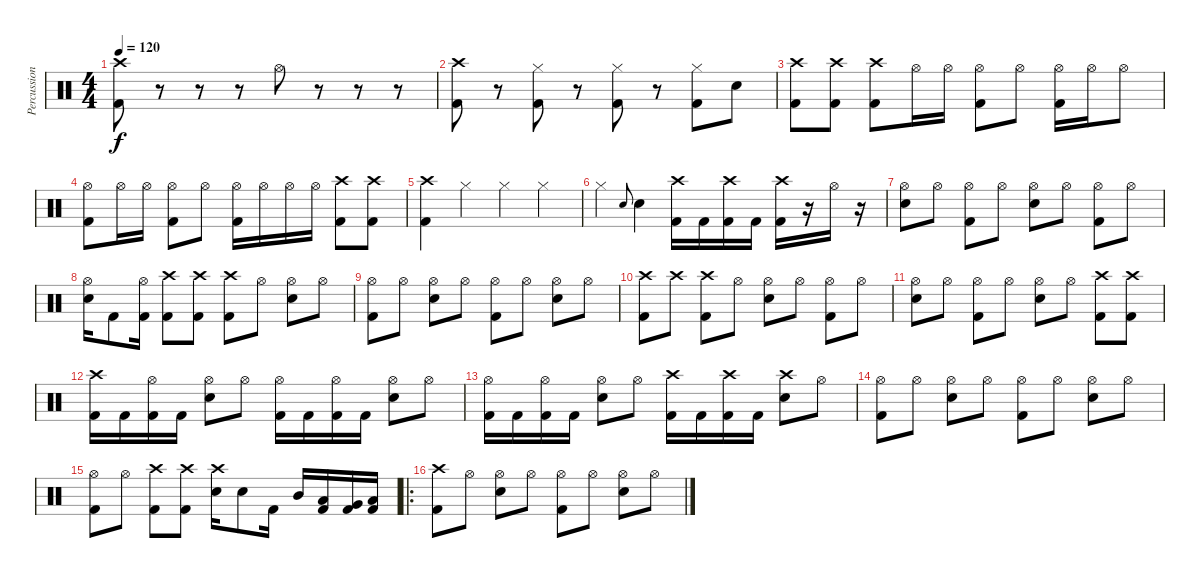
\track ("Percussion" "Percussion") {instrument percussion}
\staff {score}
\articulation defaults
\ts (4 4)
\tempo 120
\clef neutral
\ks c
("Crash high (hit)" "Kick (hit) 2").8{dy f} r.8 r.8 r.8 "Hi-Hat (open)".8 r.8 r.8 r.8 |
("Crash high (hit)" "Kick (hit) 2").8 r.8 ("Hi-Hat (closed)" "Kick (hit) 2").8 r.8 ("Hi-Hat (closed)" "Kick (hit) 2").8 r.8 ("Hi-Hat (closed)" "Kick (hit) 2").8 "Snare (hit) 2".8 |
("Crash high (hit)" "Kick (hit) 2").8 ("Crash high (hit)" "Kick (hit) 2").8 ("Crash high (hit)" "Kick (hit) 2").8 "Hi-Hat (open)".16 "Hi-Hat (open)".16 ("Hi-Hat (open)" "Kick (hit) 2").8 "Hi-Hat (open)".8 ("Hi-Hat (open)" "Kick (hit) 2").16 "Hi-Hat (open)".16 "Hi-Hat (open)".8 |
("Hi-Hat (open)" "Kick (hit) 2").8 "Hi-Hat (open)".16 "Hi-Hat (open)".16 ("Hi-Hat (open)" "Kick (hit) 2").8 "Hi-Hat (open)".8 ("Hi-Hat (open)" "Kick (hit) 2").16 "Hi-Hat (open)".16 "Hi-Hat (open)".16 "Hi-Hat (open)".16 ("Crash high (hit)" "Kick (hit) 2").8 ("Crash high (hit)" "Kick (hit) 2").8 |
("Crash high (hit)" "Kick (hit) 2").4 "Hi-Hat (closed)".4 "Hi-Hat (closed)".4 "Hi-Hat (closed)".4 |
"Hi-Hat (closed)".4 "Snare (hit) 2".8{gr onbeat} "Snare (hit) 2".4 ("Crash high (hit)" "Kick (hit) 2").16 "Kick (hit) 2".16 ("Crash high (hit)" "Kick (hit) 2").16 "Kick (hit) 2".16 ("Crash high (hit)" "Kick (hit) 2").16 r.16 "Hi-Hat (open)".16 r.16 |
("Hi-Hat (open)" "Snare (hit) 2").8 "Hi-Hat (open)".8 ("Hi-Hat (open)" "Kick (hit) 2").8 "Hi-Hat (open)".8 ("Hi-Hat (open)" "Snare (hit) 2").8 "Hi-Hat (open)".8 ("Hi-Hat (open)" "Kick (hit) 2").8 "Hi-Hat (open)".8 |
("Hi-Hat (open)" "Snare (hit) 2").16 "Kick (hit) 2".8 ("Hi-Hat (open)" "Kick (hit) 2").16 ("Crash high (hit)" "Kick (hit) 2").8 ("Crash high (hit)" "Kick (hit) 2").8 ("Crash high (hit)" "Kick (hit) 2").8 "Hi-Hat (open)".8 ("Hi-Hat (open)" "Snare (hit) 2").8 "Hi-Hat (open)".8 |
("Hi-Hat (open)" "Kick (hit) 2").8 "Hi-Hat (open)".8 ("Hi-Hat (open)" "Snare (hit) 2").8 "Hi-Hat (open)".8 ("Hi-Hat (open)" "Kick (hit) 2").8 "Hi-Hat (open)".8 ("Hi-Hat (open)" "Snare (hit) 2").8 "Hi-Hat (open)".8 |
("Crash high (hit)" "Kick (hit) 2").8 "Crash high (hit)".8 ("Crash high (hit)" "Kick (hit) 2").8 "Hi-Hat (open)".8 ("Hi-Hat (open)" "Snare (hit) 2").8 "Hi-Hat (open)".8 ("Hi-Hat (open)" "Kick (hit) 2").8 "Hi-Hat (open)".8 |
("Hi-Hat (open)" "Snare (hit) 2").8 "Hi-Hat (open)".8 ("Hi-Hat (open)" "Kick (hit) 2").8 "Hi-Hat (open)".8 ("Hi-Hat (open)" "Snare (hit) 2").8 "Hi-Hat (open)".8 ("Crash high (hit)" "Kick (hit) 2").8 ("Crash high (hit)" "Kick (hit) 2").8 |
("Crash high (hit)" "Kick (hit) 2").16 "Kick (hit) 2".16 ("Hi-Hat (open)" "Kick (hit) 2").16 "Kick (hit) 2".16 ("Hi-Hat (open)" "Snare (hit) 2").8 "Hi-Hat (open)".8 ("Hi-Hat (open)" "Kick (hit) 2").16 "Kick (hit) 2".16 ("Hi-Hat (open)" "Kick (hit) 2").16 "Kick (hit) 2".16 ("Hi-Hat (open)" "Snare (hit) 2").8 "Hi-Hat (open)".8 |
("Hi-Hat (open)" "Kick (hit) 2").16 "Kick (hit) 2".16 ("Hi-Hat (open)" "Kick (hit) 2").16 "Kick (hit) 2".16 ("Hi-Hat (open)" "Snare (hit) 2").8 "Hi-Hat (open)".8 ("Crash high (hit)" "Kick (hit) 2").16 "Kick (hit) 2".16 ("Crash high (hit)" "Kick (hit) 2").16 "Kick (hit) 2".16 ("Crash high (hit)" "Snare (hit) 2").8 "Hi-Hat (open)".8 |
("Hi-Hat (open)" "Kick (hit) 2").8 "Hi-Hat (open)".8 ("Hi-Hat (open)" "Snare (hit) 2").8 "Hi-Hat (open)".8 ("Hi-Hat (open)" "Kick (hit) 2").8 "Hi-Hat (open)".8 ("Hi-Hat (open)" "Snare (hit) 2").8 "Hi-Hat (open)".8 |
("Hi-Hat (open)" "Kick (hit) 2").8 "Hi-Hat (open)".8 ("Crash high (hit)" "Kick (hit) 2").8 ("Crash high (hit)" "Kick (hit) 2").8 ("Crash high (hit)" "Snare (hit) 2").16 "Snare (hit) 2".8 "Kick (hit) 2".16 "Mid Tom (hit)".16 ("Low Tom (hit)" "Kick (hit) 2").16 ("Very Low Tom (hit)" "Kick (hit) 2").16 ("Low Floor Tom (hit)" "Kick (hit) 2").16 |
\ro
("Crash high (hit)" "Kick (hit) 2").8 "Hi-Hat (open)".8 ("Hi-Hat (open)" "Snare (hit) 2").8 "Hi-Hat (open)".8 ("Hi-Hat (open)" "Kick (hit) 2").8 "Hi-Hat (open)".8 ("Hi-Hat (open)" "Snare (hit) 2").8 "Hi-Hat (open)".8
